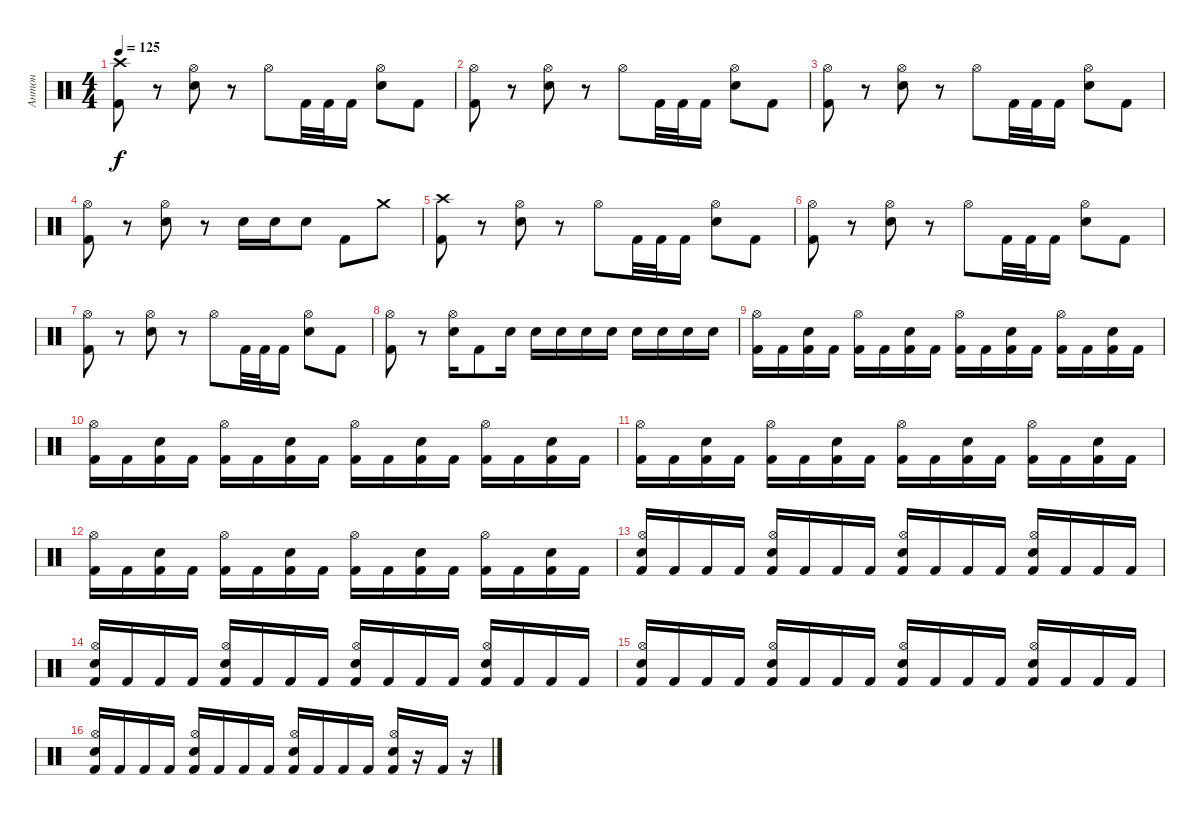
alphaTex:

\track ("Антон" "Антон") {instrument percussion}
\staff {score}
\articulation defaults
\ts (4 4)
\tempo 125
\clef neutral
\ks c
("Crash high (hit)" "Kick (hit) 2").8{dy f} r.8 ("Hi-Hat (open)" "Electric Snare (hit)").8 r.8 "Hi-Hat (open)".8 "Kick (hit) 2".32 "Kick (hit) 2".32 "Kick (hit) 2".16 ("Hi-Hat (open)" "Electric Snare (hit)").8 "Kick (hit) 2".8 |
("Hi-Hat (open)" "Kick (hit) 2").8 r.8 ("Hi-Hat (open)" "Electric Snare (hit)").8 r.8 "Hi-Hat (open)".8 "Kick (hit) 2".32 "Kick (hit) 2".32 "Kick (hit) 2".16 ("Hi-Hat (open)" "Electric Snare (hit)").8 "Kick (hit) 2".8 |
("Hi-Hat (open)" "Kick (hit) 2").8 r.8 ("Hi-Hat (open)" "Electric Snare (hit)").8 r.8 "Hi-Hat (open)".8 "Kick (hit) 2".32 "Kick (hit) 2".32 "Kick (hit) 2".16 ("Hi-Hat (open)" "Electric Snare (hit)").8 "Kick (hit) 2".8 |
("Hi-Hat (open)" "Kick (hit) 2").8 r.8 ("Hi-Hat (open)" "Electric Snare (hit)").8 r.8 "Electric Snare (hit)".16 "Electric Snare (hit)".16 "Electric Snare (hit)".8 "Kick (hit) 2".8 "Crash medium (hit)".8 |
("Crash high (hit)" "Kick (hit) 2").8 r.8 ("Hi-Hat (open)" "Electric Snare (hit)").8 r.8 "Hi-Hat (open)".8 "Kick (hit) 2".32 "Kick (hit) 2".32 "Kick (hit) 2".16 ("Hi-Hat (open)" "Electric Snare (hit)").8 "Kick (hit) 2".8 |
("Hi-Hat (open)" "Kick (hit) 2").8 r.8 ("Hi-Hat (open)" "Electric Snare (hit)").8 r.8 "Hi-Hat (open)".8 "Kick (hit) 2".32 "Kick (hit) 2".32 "Kick (hit) 2".16 ("Hi-Hat (open)" "Electric Snare (hit)").8 "Kick (hit) 2".8 |
("Hi-Hat (open)" "Kick (hit) 2").8 r.8 ("Hi-Hat (open)" "Electric Snare (hit)").8 r.8 "Hi-Hat (open)".8 "Kick (hit) 2".32 "Kick (hit) 2".32 "Kick (hit) 2".16 ("Hi-Hat (open)" "Electric Snare (hit)").8 "Kick (hit) 2".8 |
("Hi-Hat (open)" "Kick (hit) 2").8 r.8 ("Hi-Hat (open)" "Electric Snare (hit)").16 "Kick (hit) 2".8 "Electric Snare (hit)".16 "Electric Snare (hit)".16 "Electric Snare (hit)".16 "Electric Snare (hit)".16 "Electric Snare (hit)".16 "Electric Snare (hit)".16 "Electric Snare (hit)".16 "Electric Snare (hit)".16 "Electric Snare (hit)".16 |
("Kick (hit) 2" "Hi-Hat (open)").16 "Kick (hit) 2".16 ("Kick (hit) 2" "Electric Snare (hit)").16 "Kick (hit) 2".16 ("Kick (hit) 2" "Hi-Hat (open)").16 "Kick (hit) 2".16 ("Kick (hit) 2" "Electric Snare (hit)").16 "Kick (hit) 2".16 ("Kick (hit) 2" "Hi-Hat (open)").16 "Kick (hit) 2".16 ("Kick (hit) 2" "Electric Snare (hit)").16 "Kick (hit) 2".16 ("Kick (hit) 2" "Hi-Hat (open)").16 "Kick (hit) 2".16 ("Kick (hit) 2" "Electric Snare (hit)").16 "Kick (hit) 2".16 |
("Kick (hit) 2" "Hi-Hat (open)").16 "Kick (hit) 2".16 ("Kick (hit) 2" "Electric Snare (hit)").16 "Kick (hit) 2".16 ("Kick (hit) 2" "Hi-Hat (open)").16 "Kick (hit) 2".16 ("Kick (hit) 2" "Electric Snare (hit)").16 "Kick (hit) 2".16 ("Kick (hit) 2" "Hi-Hat (open)").16 "Kick (hit) 2".16 ("Kick (hit) 2" "Electric Snare (hit)").16 "Kick (hit) 2".16 ("Kick (hit) 2" "Hi-Hat (open)").16 "Kick (hit) 2".16 ("Kick (hit) 2" "Electric Snare (hit)").16 "Kick (hit) 2".16 |
("Kick (hit) 2" "Hi-Hat (open)").16 "Kick (hit) 2".16 ("Kick (hit) 2" "Electric Snare (hit)").16 "Kick (hit) 2".16 ("Kick (hit) 2" "Hi-Hat (open)").16 "Kick (hit) 2".16 ("Kick (hit) 2" "Electric Snare (hit)").16 "Kick (hit) 2".16 ("Kick (hit) 2" "Hi-Hat (open)").16 "Kick (hit) 2".16 ("Kick (hit) 2" "Electric Snare (hit)").16 "Kick (hit) 2".16 ("Kick (hit) 2" "Hi-Hat (open)").16 "Kick (hit) 2".16 ("Kick (hit) 2" "Electric Snare (hit)").16 "Kick (hit) 2".16 |
("Kick (hit) 2" "Hi-Hat (open)").16 "Kick (hit) 2".16 ("Kick (hit) 2" "Electric Snare (hit)").16 "Kick (hit) 2".16 ("Kick (hit) 2" "Hi-Hat (open)").16 "Kick (hit) 2".16 ("Kick (hit) 2" "Electric Snare (hit)").16 "Kick (hit) 2".16 ("Kick (hit) 2" "Hi-Hat (open)").16 "Kick (hit) 2".16 ("Kick (hit) 2" "Electric Snare (hit)").16 "Kick (hit) 2".16 ("Kick (hit) 2" "Hi-Hat (open)").16 "Kick (hit) 2".16 ("Kick (hit) 2" "Electric Snare (hit)").16 "Kick (hit) 2".16 |
("Kick (hit) 2" "Electric Snare (hit)" "Hi-Hat (open)").16 "Kick (hit) 2".16 "Kick (hit) 2".16 "Kick (hit) 2".16 ("Kick (hit) 2" "Electric Snare (hit)" "Hi-Hat (open)").16 "Kick (hit) 2".16 "Kick (hit) 2".16 "Kick (hit) 2".16 ("Kick (hit) 2" "Electric Snare (hit)" "Hi-Hat (open)").16 "Kick (hit) 2".16 "Kick (hit) 2".16 "Kick (hit) 2".16 ("Kick (hit) 2" "Electric Snare (hit)" "Hi-Hat (open)").16 "Kick (hit) 2".16 "Kick (hit) 2".16 "Kick (hit) 2".16 |
("Kick (hit) 2" "Electric Snare (hit)" "Hi-Hat (open)").16 "Kick (hit) 2".16 "Kick (hit) 2".16 "Kick (hit) 2".16 ("Kick (hit) 2" "Electric Snare (hit)" "Hi-Hat (open)").16 "Kick (hit) 2".16 "Kick (hit) 2".16 "Kick (hit) 2".16 ("Kick (hit) 2" "Electric Snare (hit)" "Hi-Hat (open)").16 "Kick (hit) 2".16 "Kick (hit) 2".16 "Kick (hit) 2".16 ("Kick (hit) 2" "Electric Snare (hit)" "Hi-Hat (open)").16 "Kick (hit) 2".16 "Kick (hit) 2".16 "Kick (hit) 2".16 |
("Kick (hit) 2" "Electric Snare (hit)" "Hi-Hat (open)").16 "Kick (hit) 2".16 "Kick (hit) 2".16 "Kick (hit) 2".16 ("Kick (hit) 2" "Electric Snare (hit)" "Hi-Hat (open)").16 "Kick (hit) 2".16 "Kick (hit) 2".16 "Kick (hit) 2".16 ("Kick (hit) 2" "Electric Snare (hit)" "Hi-Hat (open)").16 "Kick (hit) 2".16 "Kick (hit) 2".16 "Kick (hit) 2".16 ("Kick (hit) 2" "Electric Snare (hit)" "Hi-Hat (open)").16 "Kick (hit) 2".16 "Kick (hit) 2".16 "Kick (hit) 2".16 |
("Kick (hit) 2" "Electric Snare (hit)" "Hi-Hat (open)").16 "Kick (hit) 2".16 "Kick (hit) 2".16 "Kick (hit) 2".16 ("Kick (hit) 2" "Electric Snare (hit)" "Hi-Hat (open)").16 "Kick (hit) 2".16 "Kick (hit) 2".16 "Kick (hit) 2".16 ("Kick (hit) 2" "Electric Snare (hit)" "Hi-Hat (open)").16 "Kick (hit) 2".16 "Kick (hit) 2".16 "Kick (hit) 2".16 ("Kick (hit) 2" "Electric Snare (hit)" "Hi-Hat (open)").16 r.16 "Kick (hit) 2".16 r.16
